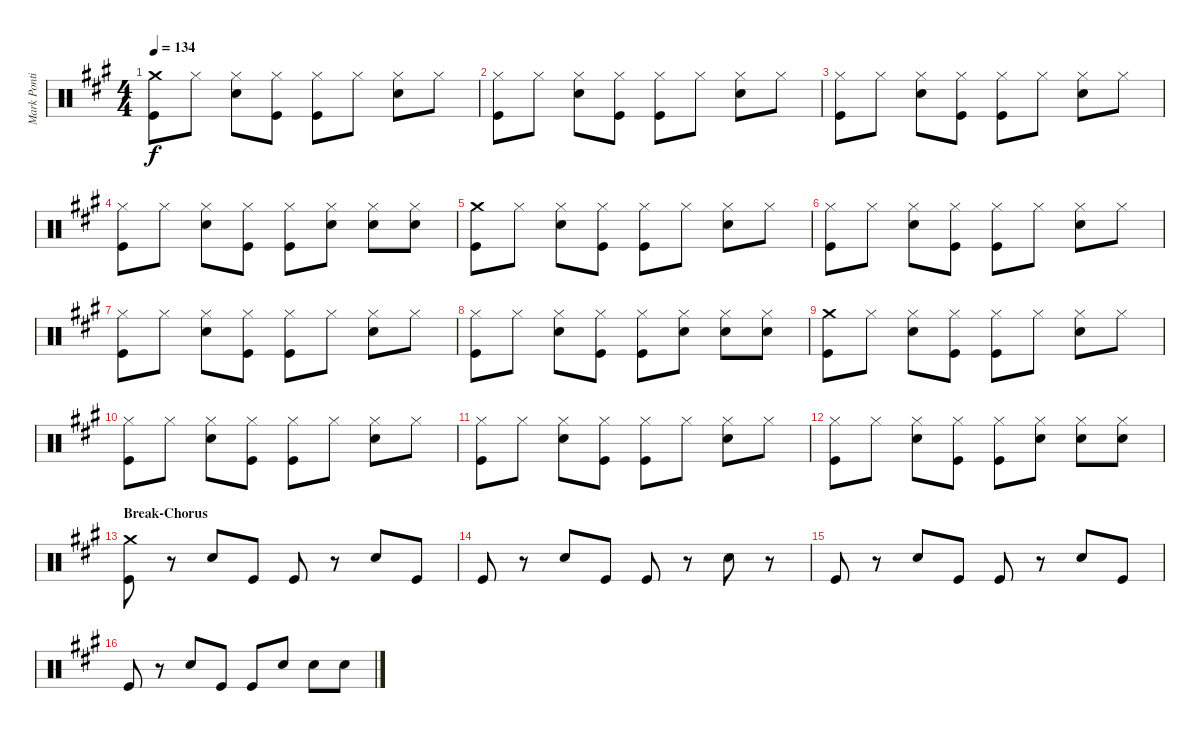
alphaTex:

\track ("Mark Pontius" "Mark Ponti") {instrument percussion}
\staff {score}
\articulation defaults
\ts (4 4)
\tempo 134
\clef neutral
\ks a
("Crash medium (hit)" "Kick (hit)").8{dy f} "Hi-Hat (closed)".8 ("Hi-Hat (closed)" "Snare (hit) 2").8 ("Hi-Hat (closed)" "Kick (hit)").8 ("Hi-Hat (closed)" "Kick (hit)").8 "Hi-Hat (closed)".8 ("Hi-Hat (closed)" "Snare (hit) 2").8 "Hi-Hat (closed)".8 |
("Hi-Hat (closed)" "Kick (hit)").8 "Hi-Hat (closed)".8 ("Hi-Hat (closed)" "Snare (hit) 2").8 ("Hi-Hat (closed)" "Kick (hit)").8 ("Hi-Hat (closed)" "Kick (hit)").8 "Hi-Hat (closed)".8 ("Hi-Hat (closed)" "Snare (hit) 2").8 "Hi-Hat (closed)".8 |
("Hi-Hat (closed)" "Kick (hit)").8 "Hi-Hat (closed)".8 ("Hi-Hat (closed)" "Snare (hit) 2").8 ("Hi-Hat (closed)" "Kick (hit)").8 ("Hi-Hat (closed)" "Kick (hit)").8 "Hi-Hat (closed)".8 ("Hi-Hat (closed)" "Snare (hit) 2").8 "Hi-Hat (closed)".8 |
("Hi-Hat (closed)" "Kick (hit)").8 "Hi-Hat (closed)".8 ("Hi-Hat (closed)" "Snare (hit) 2").8 ("Hi-Hat (closed)" "Kick (hit)").8 ("Hi-Hat (closed)" "Kick (hit)").8 ("Hi-Hat (closed)" "Snare (hit) 2").8 ("Hi-Hat (closed)" "Snare (hit) 2").8 ("Hi-Hat (closed)" "Snare (hit) 2").8 |
("Crash medium (hit)" "Kick (hit)").8 "Hi-Hat (closed)".8 ("Hi-Hat (closed)" "Snare (hit) 2").8 ("Hi-Hat (closed)" "Kick (hit)").8 ("Hi-Hat (closed)" "Kick (hit)").8 "Hi-Hat (closed)".8 ("Hi-Hat (closed)" "Snare (hit) 2").8 "Hi-Hat (closed)".8 |
("Hi-Hat (closed)" "Kick (hit)").8 "Hi-Hat (closed)".8 ("Hi-Hat (closed)" "Snare (hit) 2").8 ("Hi-Hat (closed)" "Kick (hit)").8 ("Hi-Hat (closed)" "Kick (hit)").8 "Hi-Hat (closed)".8 ("Hi-Hat (closed)" "Snare (hit) 2").8 "Hi-Hat (closed)".8 |
("Hi-Hat (closed)" "Kick (hit)").8 "Hi-Hat (closed)".8 ("Hi-Hat (closed)" "Snare (hit) 2").8 ("Hi-Hat (closed)" "Kick (hit)").8 ("Hi-Hat (closed)" "Kick (hit)").8 "Hi-Hat (closed)".8 ("Hi-Hat (closed)" "Snare (hit) 2").8 "Hi-Hat (closed)".8 |
("Hi-Hat (closed)" "Kick (hit)").8 "Hi-Hat (closed)".8 ("Hi-Hat (closed)" "Snare (hit) 2").8 ("Hi-Hat (closed)" "Kick (hit)").8 ("Hi-Hat (closed)" "Kick (hit)").8 ("Hi-Hat (closed)" "Snare (hit) 2").8 ("Hi-Hat (closed)" "Snare (hit) 2").8 ("Hi-Hat (closed)" "Snare (hit) 2").8 |
("Crash medium (hit)" "Kick (hit)").8 "Hi-Hat (closed)".8 ("Hi-Hat (closed)" "Snare (hit) 2").8 ("Hi-Hat (closed)" "Kick (hit)").8 ("Hi-Hat (closed)" "Kick (hit)").8 "Hi-Hat (closed)".8 ("Hi-Hat (closed)" "Snare (hit) 2").8 "Hi-Hat (closed)".8 |
("Hi-Hat (closed)" "Kick (hit)").8 "Hi-Hat (closed)".8 ("Hi-Hat (closed)" "Snare (hit) 2").8 ("Hi-Hat (closed)" "Kick (hit)").8 ("Hi-Hat (closed)" "Kick (hit)").8 "Hi-Hat (closed)".8 ("Hi-Hat (closed)" "Snare (hit) 2").8 "Hi-Hat (closed)".8 |
("Hi-Hat (closed)" "Kick (hit)").8 "Hi-Hat (closed)".8 ("Hi-Hat (closed)" "Snare (hit) 2").8 ("Hi-Hat (closed)" "Kick (hit)").8 ("Hi-Hat (closed)" "Kick (hit)").8 "Hi-Hat (closed)".8 ("Hi-Hat (closed)" "Snare (hit) 2").8 "Hi-Hat (closed)".8 |
("Hi-Hat (closed)" "Kick (hit)").8 "Hi-Hat (closed)".8 ("Hi-Hat (closed)" "Snare (hit) 2").8 ("Hi-Hat (closed)" "Kick (hit)").8 ("Hi-Hat (closed)" "Kick (hit)").8 ("Hi-Hat (closed)" "Snare (hit) 2").8 ("Hi-Hat (closed)" "Snare (hit) 2").8 ("Hi-Hat (closed)" "Snare (hit) 2").8 |
\section ("" "Break-Chorus")
("Crash medium (hit)" "Kick (hit)").8 r.8 "Snare (hit) 2".8 "Kick (hit)".8 "Kick (hit)".8 r.8 "Snare (hit) 2".8 "Kick (hit)".8 |
"Kick (hit)".8 r.8 "Snare (hit) 2".8 "Kick (hit)".8 "Kick (hit)".8 r.8 "Snare (hit) 2".8 r.8 |
"Kick (hit)".8 r.8 "Snare (hit) 2".8 "Kick (hit)".8 "Kick (hit)".8 r.8 "Snare (hit) 2".8 "Kick (hit)".8 |
"Kick (hit)".8 r.8 "Snare (hit) 2".8 "Kick (hit)".8 "Kick (hit)".8 "Snare (hit) 2".8 "Snare (hit) 2".8 "Snare (hit) 2".8
